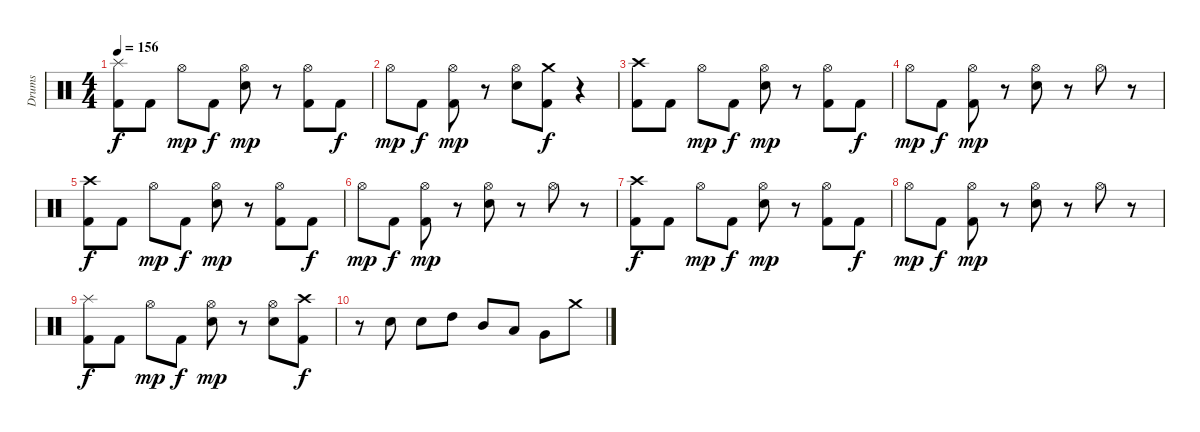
\track ("Drums" "Drums") {instrument percussion}
\staff {score}
\articulation defaults
\ts (4 4)
\tempo 156
\clef neutral
\ks c
("Kick (hit) 2" "Splash (hit)").8{dy f} "Kick (hit) 2".8 "Hi-Hat (open)".8{dy mp} "Kick (hit) 2".8{dy f} ("Snare (hit) 2" "Hi-Hat (open)").8{dy mp} r.8 ("Kick (hit) 2" "Hi-Hat (open)").8 "Kick (hit) 2".8{dy f} |
"Hi-Hat (open)".8{dy mp} "Kick (hit) 2".8{dy f} ("Kick (hit) 2" "Hi-Hat (open)").8{dy mp} r.8 ("Snare (hit) 2" "Hi-Hat (open)").8 ("Kick (hit) 2" "Crash medium (hit)").8{dy f} r.4 |
("Kick (hit) 2" "Crash high (hit)").8 "Kick (hit) 2".8 "Hi-Hat (open)".8{dy mp} "Kick (hit) 2".8{dy f} ("Snare (hit) 2" "Hi-Hat (open)").8{dy mp} r.8 ("Kick (hit) 2" "Hi-Hat (open)").8 "Kick (hit) 2".8{dy f} |
"Hi-Hat (open)".8{dy mp} "Kick (hit) 2".8{dy f} ("Kick (hit) 2" "Hi-Hat (open)").8{dy mp} r.8 ("Snare (hit) 2" "Hi-Hat (open)").8 r.8 "Hi-Hat (open)".8 r.8 |
("Kick (hit) 2" "Crash high (hit)").8{dy f} "Kick (hit) 2".8 "Hi-Hat (open)".8{dy mp} "Kick (hit) 2".8{dy f} ("Snare (hit) 2" "Hi-Hat (open)").8{dy mp} r.8 ("Kick (hit) 2" "Hi-Hat (open)").8 "Kick (hit) 2".8{dy f} |
"Hi-Hat (open)".8{dy mp} "Kick (hit) 2".8{dy f} ("Kick (hit) 2" "Hi-Hat (open)").8{dy mp} r.8 ("Snare (hit) 2" "Hi-Hat (open)").8 r.8 "Hi-Hat (open)".8 r.8 |
("Kick (hit) 2" "Crash high (hit)").8{dy f} "Kick (hit) 2".8 "Hi-Hat (open)".8{dy mp} "Kick (hit) 2".8{dy f} ("Snare (hit) 2" "Hi-Hat (open)").8{dy mp} r.8 ("Kick (hit) 2" "Hi-Hat (open)").8 "Kick (hit) 2".8{dy f} |
"Hi-Hat (open)".8{dy mp} "Kick (hit) 2".8{dy f} ("Kick (hit) 2" "Hi-Hat (open)").8{dy mp} r.8 ("Snare (hit) 2" "Hi-Hat (open)").8 r.8 "Hi-Hat (open)".8 r.8 |
("Kick (hit) 2" "Splash (hit)").8{dy f} "Kick (hit) 2".8 "Hi-Hat (open)".8{dy mp} "Kick (hit) 2".8{dy f} ("Snare (hit) 2" "Hi-Hat (open)").8{dy mp} r.8 ("Snare (hit) 2" "Hi-Hat (open)").8 ("Kick (hit) 2" "Crash high (hit)").8{dy f} |
r.8 "Snare (hit) 2".8 "Snare (hit) 2".8 "High Tom (hit)".8 "Mid Tom (hit)".8 "Low Tom (hit)".8 "Very Low Tom (hit)".8 "Crash medium (hit)".8
